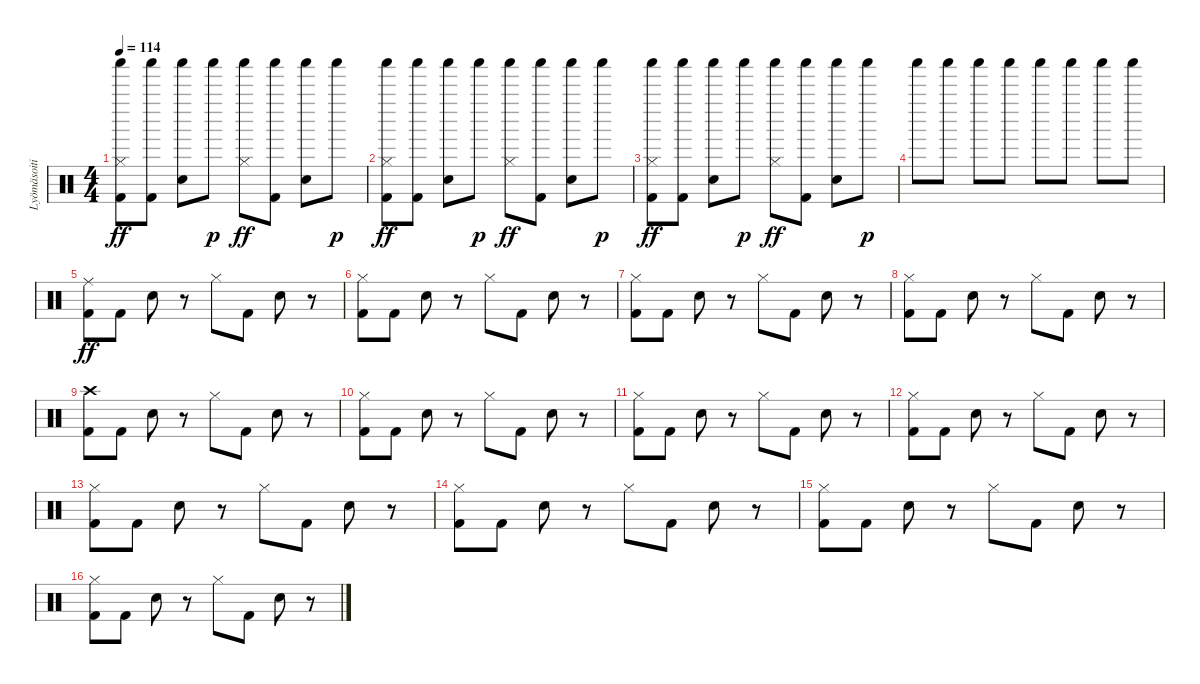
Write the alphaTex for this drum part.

\track ("Lyömäsoitin" "Lyömäsoiti") {instrument percussion}
\staff {score}
\articulation defaults
\ts (4 4)
\tempo 114
\clef neutral
\ks c
("Shaker (hit)" "Hi-Hat (closed)" "Kick (hit) 2").8{dy ff} ("Shaker (hit)" "Kick (hit) 2").8 ("Shaker (hit)" "Electric Snare (hit)").8 "Shaker (hit)".8{dy p} ("Shaker (hit)" "Hi-Hat (closed)").8{dy ff} ("Shaker (hit)" "Kick (hit) 2").8 ("Shaker (hit)" "Electric Snare (hit)").8 "Shaker (hit)".8{dy p} |
("Shaker (hit)" "Hi-Hat (closed)" "Kick (hit) 2").8{dy ff} ("Shaker (hit)" "Kick (hit) 2").8 ("Shaker (hit)" "Electric Snare (hit)").8 "Shaker (hit)".8{dy p} ("Shaker (hit)" "Hi-Hat (closed)").8{dy ff} ("Shaker (hit)" "Kick (hit) 2").8 ("Shaker (hit)" "Electric Snare (hit)").8 "Shaker (hit)".8{dy p} |
("Shaker (hit)" "Hi-Hat (closed)" "Kick (hit) 2").8{dy ff} ("Shaker (hit)" "Kick (hit) 2").8 ("Shaker (hit)" "Electric Snare (hit)").8 "Shaker (hit)".8{dy p} ("Shaker (hit)" "Hi-Hat (closed)").8{dy ff} ("Shaker (hit)" "Kick (hit) 2").8 ("Shaker (hit)" "Electric Snare (hit)").8 "Shaker (hit)".8{dy p} |
"Shaker (hit)".8 "Shaker (hit)".8 "Shaker (hit)".8 "Shaker (hit)".8 "Shaker (hit)".8 "Shaker (hit)".8 "Shaker (hit)".8 "Shaker (hit)".8 |
("Ride (middle)" "Kick (hit) 2").8{dy ff} "Kick (hit) 2".8 "Electric Snare (hit)".8 r.8 "Hi-Hat (closed)".8 "Kick (hit) 2".8 "Electric Snare (hit)".8 r.8 |
("Hi-Hat (closed)" "Kick (hit) 2").8 "Kick (hit) 2".8 "Electric Snare (hit)".8 r.8 "Hi-Hat (closed)".8 "Kick (hit) 2".8 "Electric Snare (hit)".8 r.8 |
("Hi-Hat (closed)" "Kick (hit) 2").8 "Kick (hit) 2".8 "Electric Snare (hit)".8 r.8 "Hi-Hat (closed)".8 "Kick (hit) 2".8 "Electric Snare (hit)".8 r.8 |
("Hi-Hat (closed)" "Kick (hit) 2").8 "Kick (hit) 2".8 "Electric Snare (hit)".8 r.8 "Hi-Hat (closed)".8 "Kick (hit) 2".8 "Electric Snare (hit)".8 r.8 |
("Crash high (hit)" "Kick (hit) 2").8 "Kick (hit) 2".8 "Electric Snare (hit)".8 r.8 "Hi-Hat (closed)".8 "Kick (hit) 2".8 "Electric Snare (hit)".8 r.8 |
("Hi-Hat (closed)" "Kick (hit) 2").8 "Kick (hit) 2".8 "Electric Snare (hit)".8 r.8 "Hi-Hat (closed)".8 "Kick (hit) 2".8 "Electric Snare (hit)".8 r.8 |
("Hi-Hat (closed)" "Kick (hit) 2").8 "Kick (hit) 2".8 "Electric Snare (hit)".8 r.8 "Hi-Hat (closed)".8 "Kick (hit) 2".8 "Electric Snare (hit)".8 r.8 |
("Hi-Hat (closed)" "Kick (hit) 2").8 "Kick (hit) 2".8 "Electric Snare (hit)".8 r.8 "Hi-Hat (closed)".8 "Kick (hit) 2".8 "Electric Snare (hit)".8 r.8 |
("Hi-Hat (closed)" "Kick (hit) 2").8 "Kick (hit) 2".8 "Electric Snare (hit)".8 r.8 "Hi-Hat (closed)".8 "Kick (hit) 2".8 "Electric Snare (hit)".8 r.8 |
("Hi-Hat (closed)" "Kick (hit) 2").8 "Kick (hit) 2".8 "Electric Snare (hit)".8 r.8 "Hi-Hat (closed)".8 "Kick (hit) 2".8 "Electric Snare (hit)".8 r.8 |
("Hi-Hat (closed)" "Kick (hit) 2").8 "Kick (hit) 2".8 "Electric Snare (hit)".8 r.8 "Hi-Hat (closed)".8 "Kick (hit) 2".8 "Electric Snare (hit)".8 r.8 |
("Hi-Hat (closed)" "Kick (hit) 2").8 "Kick (hit) 2".8 "Electric Snare (hit)".8 r.8 "Hi-Hat (closed)".8 "Kick (hit) 2".8 "Electric Snare (hit)".8 r.8
